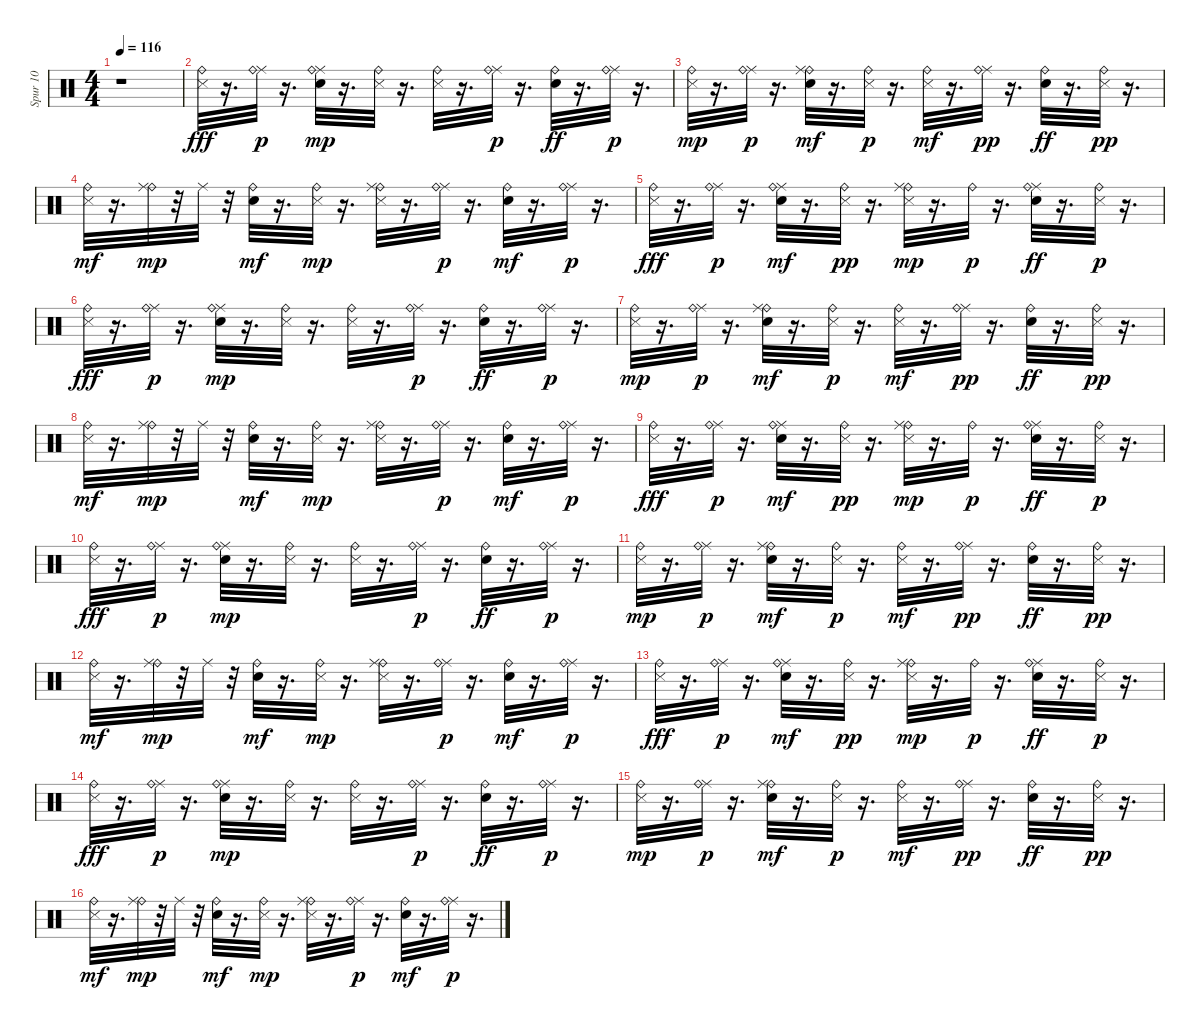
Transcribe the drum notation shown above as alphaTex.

\track ("Spur 10" "Spur 10") {instrument percussion}
\staff {score}
\articulation defaults
\ts (4 4)
\tempo 116
\clef neutral
\ks c
r.1{dy fff} |
("Metronome (hit)" "Ride (bell)").32 r.16{d} ("Ride (middle)" "Ride (bell)").32{dy p} r.16{d} ("Metronome (bell)" "Ride (middle)" "Ride (bell)").32{dy mp} r.16{d} ("Metronome (hit)" "Ride (bell)").32 r.16{d} ("Metronome (hit)" "Ride (bell)").32 r.16{d} ("Ride (middle)" "Ride (bell)").32{dy p} r.16{d} ("Metronome (bell)" "Ride (bell)").32{dy ff} r.16{d} ("Ride (middle)" "Ride (bell)").32{dy p} r.16{d} |
("Metronome (hit)" "Ride (bell)").32{dy mp} r.16{d} ("Ride (middle)" "Ride (bell)").32{dy p} r.16{d} ("Metronome (bell)" "Ride (bell)" "Ride (middle)").32{dy mf} r.16{d} ("Metronome (hit)" "Ride (bell)").32{dy p} r.16{d} ("Metronome (hit)" "Ride (bell)").32{dy mf} r.16{d} ("Ride (middle)" "Ride (bell)").32{dy pp} r.16{d} ("Metronome (bell)" "Ride (bell)").32{dy ff} r.16{d} ("Metronome (hit)" "Ride (bell)").32{dy pp} r.16{d} |
("Metronome (hit)" "Ride (bell)").32{dy mf} r.16{d} ("Ride (bell)" "Ride (middle)").32{dy mp} r.32 "Ride (middle)".32 r.32 ("Metronome (bell)" "Ride (bell)").32{dy mf} r.16{d} ("Metronome (hit)" "Ride (bell)").32{dy mp} r.16{d} ("Metronome (hit)" "Ride (bell)" "Ride (middle)").32 r.16{d} ("Ride (middle)" "Ride (bell)").32{dy p} r.16{d} ("Metronome (bell)" "Ride (bell)").32{dy mf} r.16{d} ("Ride (middle)" "Ride (bell)").32{dy p} r.16{d} |
("Metronome (hit)" "Ride (bell)").32{dy fff} r.16{d} ("Ride (middle)" "Ride (bell)").32{dy p} r.16{d} ("Metronome (bell)" "Ride (middle)" "Ride (bell)").32{dy mf} r.16{d} ("Metronome (hit)" "Ride (bell)").32{dy pp} r.16{d} ("Metronome (hit)" "Ride (bell)" "Ride (middle)").32{dy mp} r.16{d} "Ride (bell)".32{dy p} r.16{d} ("Ride (middle)" "Metronome (bell)" "Ride (bell)").32{dy ff} r.16{d} ("Metronome (hit)" "Ride (bell)").32{dy p} r.16{d} |
("Metronome (hit)" "Ride (bell)").32{dy fff} r.16{d} ("Ride (middle)" "Ride (bell)").32{dy p} r.16{d} ("Metronome (bell)" "Ride (middle)" "Ride (bell)").32{dy mp} r.16{d} ("Metronome (hit)" "Ride (bell)").32 r.16{d} ("Metronome (hit)" "Ride (bell)").32 r.16{d} ("Ride (middle)" "Ride (bell)").32{dy p} r.16{d} ("Metronome (bell)" "Ride (bell)").32{dy ff} r.16{d} ("Ride (middle)" "Ride (bell)").32{dy p} r.16{d} |
("Metronome (hit)" "Ride (bell)").32{dy mp} r.16{d} ("Ride (middle)" "Ride (bell)").32{dy p} r.16{d} ("Metronome (bell)" "Ride (bell)" "Ride (middle)").32{dy mf} r.16{d} ("Metronome (hit)" "Ride (bell)").32{dy p} r.16{d} ("Metronome (hit)" "Ride (bell)").32{dy mf} r.16{d} ("Ride (middle)" "Ride (bell)").32{dy pp} r.16{d} ("Metronome (bell)" "Ride (bell)").32{dy ff} r.16{d} ("Metronome (hit)" "Ride (bell)").32{dy pp} r.16{d} |
("Metronome (hit)" "Ride (bell)").32{dy mf} r.16{d} ("Ride (bell)" "Ride (middle)").32{dy mp} r.32 "Ride (middle)".32 r.32 ("Metronome (bell)" "Ride (bell)").32{dy mf} r.16{d} ("Metronome (hit)" "Ride (bell)").32{dy mp} r.16{d} ("Metronome (hit)" "Ride (bell)" "Ride (middle)").32 r.16{d} ("Ride (middle)" "Ride (bell)").32{dy p} r.16{d} ("Metronome (bell)" "Ride (bell)").32{dy mf} r.16{d} ("Ride (middle)" "Ride (bell)").32{dy p} r.16{d} |
("Metronome (hit)" "Ride (bell)").32{dy fff} r.16{d} ("Ride (middle)" "Ride (bell)").32{dy p} r.16{d} ("Metronome (bell)" "Ride (middle)" "Ride (bell)").32{dy mf} r.16{d} ("Metronome (hit)" "Ride (bell)").32{dy pp} r.16{d} ("Metronome (hit)" "Ride (bell)" "Ride (middle)").32{dy mp} r.16{d} "Ride (bell)".32{dy p} r.16{d} ("Ride (middle)" "Metronome (bell)" "Ride (bell)").32{dy ff} r.16{d} ("Metronome (hit)" "Ride (bell)").32{dy p} r.16{d} |
("Metronome (hit)" "Ride (bell)").32{dy fff} r.16{d} ("Ride (middle)" "Ride (bell)").32{dy p} r.16{d} ("Metronome (bell)" "Ride (middle)" "Ride (bell)").32{dy mp} r.16{d} ("Metronome (hit)" "Ride (bell)").32 r.16{d} ("Metronome (hit)" "Ride (bell)").32 r.16{d} ("Ride (middle)" "Ride (bell)").32{dy p} r.16{d} ("Metronome (bell)" "Ride (bell)").32{dy ff} r.16{d} ("Ride (middle)" "Ride (bell)").32{dy p} r.16{d} |
("Metronome (hit)" "Ride (bell)").32{dy mp} r.16{d} ("Ride (middle)" "Ride (bell)").32{dy p} r.16{d} ("Metronome (bell)" "Ride (bell)" "Ride (middle)").32{dy mf} r.16{d} ("Metronome (hit)" "Ride (bell)").32{dy p} r.16{d} ("Metronome (hit)" "Ride (bell)").32{dy mf} r.16{d} ("Ride (middle)" "Ride (bell)").32{dy pp} r.16{d} ("Metronome (bell)" "Ride (bell)").32{dy ff} r.16{d} ("Metronome (hit)" "Ride (bell)").32{dy pp} r.16{d} |
("Metronome (hit)" "Ride (bell)").32{dy mf} r.16{d} ("Ride (bell)" "Ride (middle)").32{dy mp} r.32 "Ride (middle)".32 r.32 ("Metronome (bell)" "Ride (bell)").32{dy mf} r.16{d} ("Metronome (hit)" "Ride (bell)").32{dy mp} r.16{d} ("Metronome (hit)" "Ride (bell)" "Ride (middle)").32 r.16{d} ("Ride (middle)" "Ride (bell)").32{dy p} r.16{d} ("Metronome (bell)" "Ride (bell)").32{dy mf} r.16{d} ("Ride (middle)" "Ride (bell)").32{dy p} r.16{d} |
("Metronome (hit)" "Ride (bell)").32{dy fff} r.16{d} ("Ride (middle)" "Ride (bell)").32{dy p} r.16{d} ("Metronome (bell)" "Ride (middle)" "Ride (bell)").32{dy mf} r.16{d} ("Metronome (hit)" "Ride (bell)").32{dy pp} r.16{d} ("Metronome (hit)" "Ride (bell)" "Ride (middle)").32{dy mp} r.16{d} "Ride (bell)".32{dy p} r.16{d} ("Ride (middle)" "Metronome (bell)" "Ride (bell)").32{dy ff} r.16{d} ("Metronome (hit)" "Ride (bell)").32{dy p} r.16{d} |
("Metronome (hit)" "Ride (bell)").32{dy fff} r.16{d} ("Ride (middle)" "Ride (bell)").32{dy p} r.16{d} ("Metronome (bell)" "Ride (middle)" "Ride (bell)").32{dy mp} r.16{d} ("Metronome (hit)" "Ride (bell)").32 r.16{d} ("Metronome (hit)" "Ride (bell)").32 r.16{d} ("Ride (middle)" "Ride (bell)").32{dy p} r.16{d} ("Metronome (bell)" "Ride (bell)").32{dy ff} r.16{d} ("Ride (middle)" "Ride (bell)").32{dy p} r.16{d} |
("Metronome (hit)" "Ride (bell)").32{dy mp} r.16{d} ("Ride (middle)" "Ride (bell)").32{dy p} r.16{d} ("Metronome (bell)" "Ride (bell)" "Ride (middle)").32{dy mf} r.16{d} ("Metronome (hit)" "Ride (bell)").32{dy p} r.16{d} ("Metronome (hit)" "Ride (bell)").32{dy mf} r.16{d} ("Ride (middle)" "Ride (bell)").32{dy pp} r.16{d} ("Metronome (bell)" "Ride (bell)").32{dy ff} r.16{d} ("Metronome (hit)" "Ride (bell)").32{dy pp} r.16{d} |
("Metronome (hit)" "Ride (bell)").32{dy mf} r.16{d} ("Ride (bell)" "Ride (middle)").32{dy mp} r.32 "Ride (middle)".32 r.32 ("Metronome (bell)" "Ride (bell)").32{dy mf} r.16{d} ("Metronome (hit)" "Ride (bell)").32{dy mp} r.16{d} ("Metronome (hit)" "Ride (bell)" "Ride (middle)").32 r.16{d} ("Ride (middle)" "Ride (bell)").32{dy p} r.16{d} ("Metronome (bell)" "Ride (bell)").32{dy mf} r.16{d} ("Ride (middle)" "Ride (bell)").32{dy p} r.16{d}
